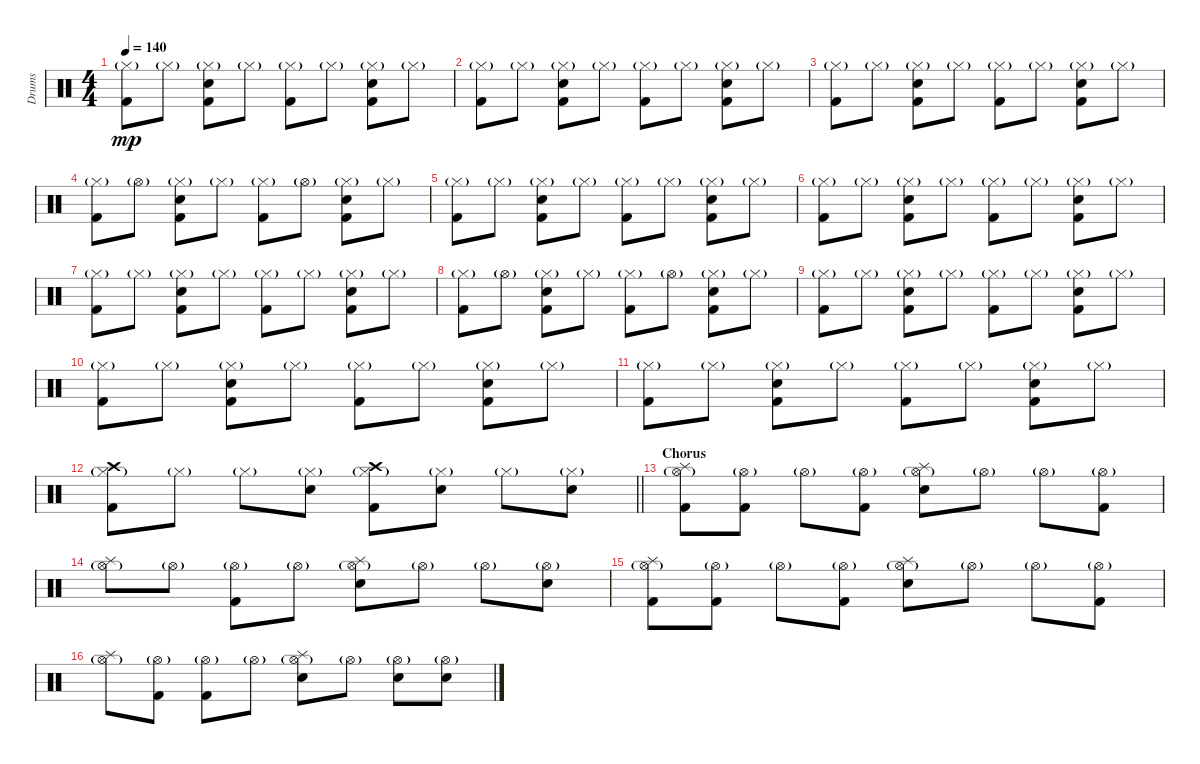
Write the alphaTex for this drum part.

\track ("Drums" "Drums") {instrument percussion}
\staff {score}
\articulation defaults
\ts (4 4)
\tempo 140
\clef neutral
\ks c
("Hi-Hat (closed)"{g} "Kick (hit) 2").8{dy mp} "Hi-Hat (closed)"{g}.8 ("Hi-Hat (closed)"{g} "Electric Snare (hit)" "Kick (hit) 2").8 "Hi-Hat (closed)"{g}.8 ("Hi-Hat (closed)"{g} "Kick (hit) 2").8 "Hi-Hat (closed)"{g}.8 ("Hi-Hat (closed)"{g} "Electric Snare (hit)" "Kick (hit) 2").8 "Hi-Hat (closed)"{g}.8 |
("Hi-Hat (closed)"{g} "Kick (hit) 2").8 "Hi-Hat (closed)"{g}.8 ("Hi-Hat (closed)"{g} "Electric Snare (hit)" "Kick (hit) 2").8 "Hi-Hat (closed)"{g}.8 ("Hi-Hat (closed)"{g} "Kick (hit) 2").8 "Hi-Hat (closed)"{g}.8 ("Hi-Hat (closed)"{g} "Electric Snare (hit)" "Kick (hit) 2").8 "Hi-Hat (closed)"{g}.8 |
("Hi-Hat (closed)"{g} "Kick (hit) 2").8 "Hi-Hat (closed)"{g}.8 ("Hi-Hat (closed)"{g} "Electric Snare (hit)" "Kick (hit) 2").8 "Hi-Hat (closed)"{g}.8 ("Hi-Hat (closed)"{g} "Kick (hit) 2").8 "Hi-Hat (closed)"{g}.8 ("Hi-Hat (closed)"{g} "Electric Snare (hit)" "Kick (hit) 2").8 "Hi-Hat (closed)"{g}.8 |
("Hi-Hat (closed)"{g} "Kick (hit) 2").8 "Hi-Hat (open)"{g}.8 ("Hi-Hat (closed)"{g} "Electric Snare (hit)" "Kick (hit) 2").8 "Hi-Hat (closed)"{g}.8 ("Hi-Hat (closed)"{g} "Kick (hit) 2").8 "Hi-Hat (open)"{g}.8 ("Hi-Hat (closed)"{g} "Electric Snare (hit)" "Kick (hit) 2").8 "Hi-Hat (closed)"{g}.8 |
("Hi-Hat (closed)"{g} "Kick (hit) 2").8 "Hi-Hat (closed)"{g}.8 ("Hi-Hat (closed)"{g} "Electric Snare (hit)" "Kick (hit) 2").8 "Hi-Hat (closed)"{g}.8 ("Hi-Hat (closed)"{g} "Kick (hit) 2").8 "Hi-Hat (closed)"{g}.8 ("Hi-Hat (closed)"{g} "Electric Snare (hit)" "Kick (hit) 2").8 "Hi-Hat (closed)"{g}.8 |
("Hi-Hat (closed)"{g} "Kick (hit) 2").8 "Hi-Hat (closed)"{g}.8 ("Hi-Hat (closed)"{g} "Electric Snare (hit)" "Kick (hit) 2").8 "Hi-Hat (closed)"{g}.8 ("Hi-Hat (closed)"{g} "Kick (hit) 2").8 "Hi-Hat (closed)"{g}.8 ("Hi-Hat (closed)"{g} "Electric Snare (hit)" "Kick (hit) 2").8 "Hi-Hat (closed)"{g}.8 |
("Hi-Hat (closed)"{g} "Kick (hit) 2").8 "Hi-Hat (closed)"{g}.8 ("Hi-Hat (closed)"{g} "Electric Snare (hit)" "Kick (hit) 2").8 "Hi-Hat (closed)"{g}.8 ("Hi-Hat (closed)"{g} "Kick (hit) 2").8 "Hi-Hat (closed)"{g}.8 ("Hi-Hat (closed)"{g} "Electric Snare (hit)" "Kick (hit) 2").8 "Hi-Hat (closed)"{g}.8 |
("Hi-Hat (closed)"{g} "Kick (hit) 2").8 "Hi-Hat (open)"{g}.8 ("Hi-Hat (closed)"{g} "Electric Snare (hit)" "Kick (hit) 2").8 "Hi-Hat (closed)"{g}.8 ("Hi-Hat (closed)"{g} "Kick (hit) 2").8 "Hi-Hat (open)"{g}.8 ("Hi-Hat (closed)"{g} "Electric Snare (hit)" "Kick (hit) 2").8 "Hi-Hat (closed)"{g}.8 |
("Hi-Hat (closed)"{g} "Kick (hit) 2").8 "Hi-Hat (closed)"{g}.8 ("Hi-Hat (closed)"{g} "Electric Snare (hit)" "Kick (hit) 2").8 "Hi-Hat (closed)"{g}.8 ("Hi-Hat (closed)"{g} "Kick (hit) 2").8 "Hi-Hat (closed)"{g}.8 ("Hi-Hat (closed)"{g} "Electric Snare (hit)" "Kick (hit) 2").8 "Hi-Hat (closed)"{g}.8 |
("Hi-Hat (closed)"{g} "Kick (hit) 2").8 "Hi-Hat (closed)"{g}.8 ("Hi-Hat (closed)"{g} "Electric Snare (hit)" "Kick (hit) 2").8 "Hi-Hat (closed)"{g}.8 ("Hi-Hat (closed)"{g} "Kick (hit) 2").8 "Hi-Hat (closed)"{g}.8 ("Hi-Hat (closed)"{g} "Electric Snare (hit)" "Kick (hit) 2").8 "Hi-Hat (closed)"{g}.8 |
("Hi-Hat (closed)"{g} "Kick (hit) 2").8 "Hi-Hat (closed)"{g}.8 ("Hi-Hat (closed)"{g} "Electric Snare (hit)" "Kick (hit) 2").8 "Hi-Hat (closed)"{g}.8 ("Hi-Hat (closed)"{g} "Kick (hit) 2").8 "Hi-Hat (closed)"{g}.8 ("Hi-Hat (closed)"{g} "Electric Snare (hit)" "Kick (hit) 2").8 "Hi-Hat (closed)"{g}.8 |
\barLineRight lightlight
("Hi-Hat (closed)"{g} "Crash high (hit)" "Kick (hit) 2").8 "Hi-Hat (closed)"{g}.8 "Hi-Hat (closed)"{g}.8 ("Hi-Hat (closed)"{g} "Electric Snare (hit)").8 ("Hi-Hat (closed)"{g} "Crash high (hit)" "Kick (hit) 2").8 ("Hi-Hat (closed)"{g} "Electric Snare (hit)").8 "Hi-Hat (closed)"{g}.8 ("Hi-Hat (closed)"{g} "Electric Snare (hit)").8 |
\section ("" "Chorus")
("Hi-Hat (open)"{g} "Splash (hit)" "Kick (hit) 2").8 ("Hi-Hat (open)"{g} "Kick (hit) 2").8 "Hi-Hat (open)"{g}.8 ("Hi-Hat (open)"{g} "Kick (hit) 2").8 ("Hi-Hat (open)"{g} "Splash (hit)" "Electric Snare (hit)").8 "Hi-Hat (open)"{g}.8 "Hi-Hat (open)"{g}.8 ("Hi-Hat (open)"{g} "Kick (hit) 2").8 |
("Hi-Hat (open)"{g} "Splash (hit)").8 "Hi-Hat (open)"{g}.8 ("Hi-Hat (open)"{g} "Kick (hit) 2").8 "Hi-Hat (open)"{g}.8 ("Hi-Hat (open)"{g} "Splash (hit)" "Electric Snare (hit)").8 "Hi-Hat (open)"{g}.8 "Hi-Hat (open)"{g}.8 ("Hi-Hat (open)"{g} "Electric Snare (hit)").8 |
("Hi-Hat (open)"{g} "Splash (hit)" "Kick (hit) 2").8 ("Hi-Hat (open)"{g} "Kick (hit) 2").8 "Hi-Hat (open)"{g}.8 ("Hi-Hat (open)"{g} "Kick (hit) 2").8 ("Hi-Hat (open)"{g} "Splash (hit)" "Electric Snare (hit)").8 "Hi-Hat (open)"{g}.8 "Hi-Hat (open)"{g}.8 ("Hi-Hat (open)"{g} "Kick (hit) 2").8 |
("Hi-Hat (open)"{g} "Splash (hit)").8 ("Hi-Hat (open)"{g} "Kick (hit) 2").8 ("Hi-Hat (open)"{g} "Kick (hit) 2").8 "Hi-Hat (open)"{g}.8 ("Hi-Hat (open)"{g} "Splash (hit)" "Electric Snare (hit)").8 "Hi-Hat (open)"{g}.8 ("Hi-Hat (open)"{g} "Electric Snare (hit)").8 ("Hi-Hat (open)"{g} "Electric Snare (hit)").8
